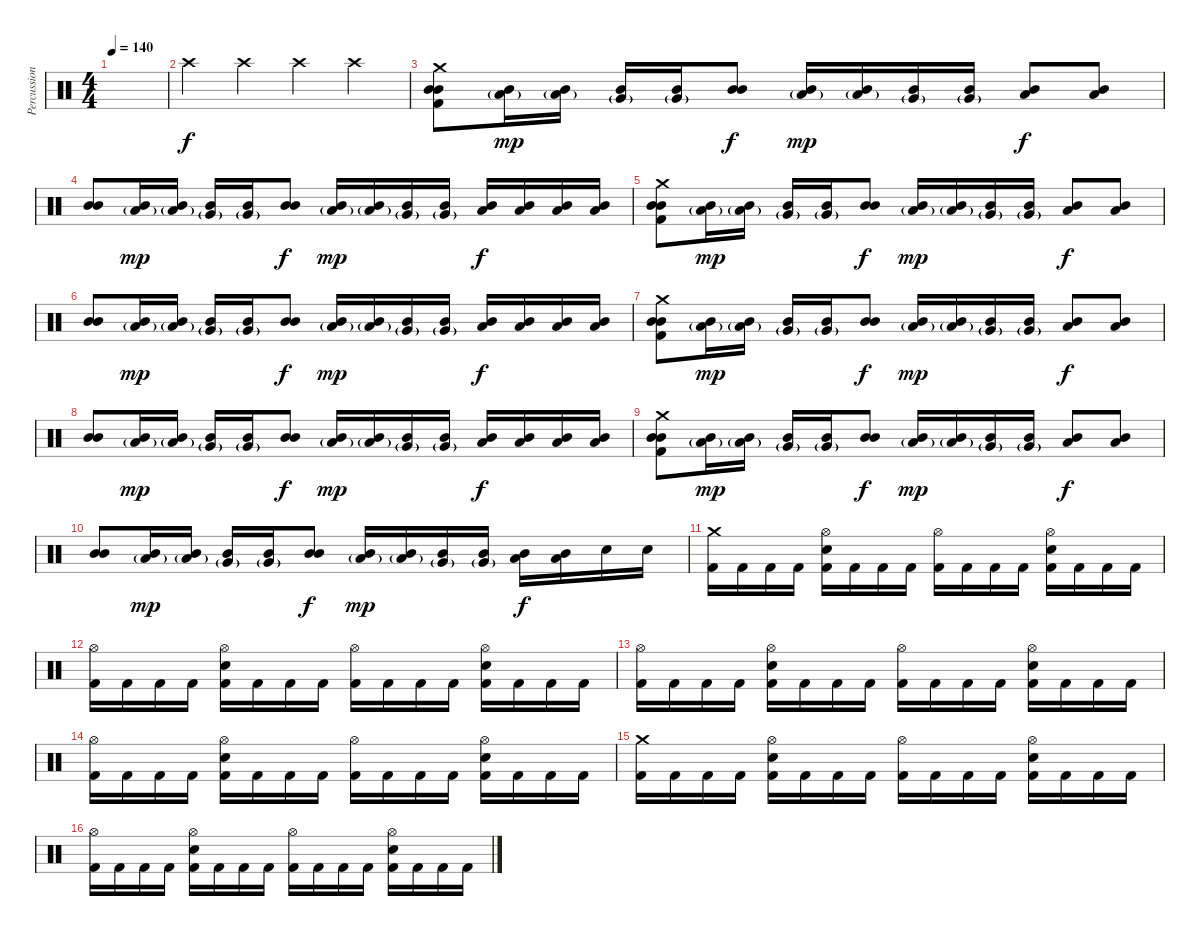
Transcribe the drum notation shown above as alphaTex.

\track ("Percussion" "Percussion") {instrument percussion}
\staff {score}
\articulation defaults
\ts (4 4)
\tempo 140
\clef neutral
\ks c
|
"Crash high (hit)".4 "Crash high (hit)".4 "Crash high (hit)".4 "Crash high (hit)".4 |
("Crash medium (hit)" "Mid Tom (hit)" "Mid Tom (hit)" "Kick (hit) 2").8 ("Low Tom (hit)"{g} "Mid Tom (hit)").16{dy mp} ("Low Tom (hit)"{g} "Mid Tom (hit)").16 ("Very Low Tom (hit)"{g} "Mid Tom (hit)").16 ("Very Low Tom (hit)"{g} "Mid Tom (hit)").16 ("Mid Tom (hit)" "Mid Tom (hit)").8{dy f} ("Low Tom (hit)"{g} "Mid Tom (hit)").16{dy mp} ("Low Tom (hit)"{g} "Mid Tom (hit)").16 ("Very Low Tom (hit)"{g} "Mid Tom (hit)").16 ("Very Low Tom (hit)"{g} "Mid Tom (hit)").16 ("Low Tom (hit)" "Mid Tom (hit)").8{dy f} ("Low Tom (hit)" "Mid Tom (hit)").8 |
("Mid Tom (hit)" "Mid Tom (hit)").8 ("Low Tom (hit)"{g} "Mid Tom (hit)").16{dy mp} ("Low Tom (hit)"{g} "Mid Tom (hit)").16 ("Very Low Tom (hit)"{g} "Mid Tom (hit)").16 ("Very Low Tom (hit)"{g} "Mid Tom (hit)").16 ("Mid Tom (hit)" "Mid Tom (hit)").8{dy f} ("Low Tom (hit)"{g} "Mid Tom (hit)").16{dy mp} ("Low Tom (hit)"{g} "Mid Tom (hit)").16 ("Very Low Tom (hit)"{g} "Mid Tom (hit)").16 ("Very Low Tom (hit)"{g} "Mid Tom (hit)").16 ("Low Tom (hit)" "Mid Tom (hit)").16{dy f} ("Low Tom (hit)" "Mid Tom (hit)").16 ("Low Tom (hit)" "Mid Tom (hit)").16 ("Low Tom (hit)" "Mid Tom (hit)").16 |
("Crash medium (hit)" "Mid Tom (hit)" "Mid Tom (hit)" "Kick (hit) 2").8 ("Low Tom (hit)"{g} "Mid Tom (hit)").16{dy mp} ("Low Tom (hit)"{g} "Mid Tom (hit)").16 ("Very Low Tom (hit)"{g} "Mid Tom (hit)").16 ("Very Low Tom (hit)"{g} "Mid Tom (hit)").16 ("Mid Tom (hit)" "Mid Tom (hit)").8{dy f} ("Low Tom (hit)"{g} "Mid Tom (hit)").16{dy mp} ("Low Tom (hit)"{g} "Mid Tom (hit)").16 ("Very Low Tom (hit)"{g} "Mid Tom (hit)").16 ("Very Low Tom (hit)"{g} "Mid Tom (hit)").16 ("Low Tom (hit)" "Mid Tom (hit)").8{dy f} ("Low Tom (hit)" "Mid Tom (hit)").8 |
("Mid Tom (hit)" "Mid Tom (hit)").8 ("Low Tom (hit)"{g} "Mid Tom (hit)").16{dy mp} ("Low Tom (hit)"{g} "Mid Tom (hit)").16 ("Very Low Tom (hit)"{g} "Mid Tom (hit)").16 ("Very Low Tom (hit)"{g} "Mid Tom (hit)").16 ("Mid Tom (hit)" "Mid Tom (hit)").8{dy f} ("Low Tom (hit)"{g} "Mid Tom (hit)").16{dy mp} ("Low Tom (hit)"{g} "Mid Tom (hit)").16 ("Very Low Tom (hit)"{g} "Mid Tom (hit)").16 ("Very Low Tom (hit)"{g} "Mid Tom (hit)").16 ("Low Tom (hit)" "Mid Tom (hit)").16{dy f} ("Low Tom (hit)" "Mid Tom (hit)").16 ("Low Tom (hit)" "Mid Tom (hit)").16 ("Low Tom (hit)" "Mid Tom (hit)").16 |
("Crash medium (hit)" "Mid Tom (hit)" "Mid Tom (hit)" "Kick (hit) 2").8 ("Low Tom (hit)"{g} "Mid Tom (hit)").16{dy mp} ("Low Tom (hit)"{g} "Mid Tom (hit)").16 ("Very Low Tom (hit)"{g} "Mid Tom (hit)").16 ("Very Low Tom (hit)"{g} "Mid Tom (hit)").16 ("Mid Tom (hit)" "Mid Tom (hit)").8{dy f} ("Low Tom (hit)"{g} "Mid Tom (hit)").16{dy mp} ("Low Tom (hit)"{g} "Mid Tom (hit)").16 ("Very Low Tom (hit)"{g} "Mid Tom (hit)").16 ("Very Low Tom (hit)"{g} "Mid Tom (hit)").16 ("Low Tom (hit)" "Mid Tom (hit)").8{dy f} ("Low Tom (hit)" "Mid Tom (hit)").8 |
("Mid Tom (hit)" "Mid Tom (hit)").8 ("Low Tom (hit)"{g} "Mid Tom (hit)").16{dy mp} ("Low Tom (hit)"{g} "Mid Tom (hit)").16 ("Very Low Tom (hit)"{g} "Mid Tom (hit)").16 ("Very Low Tom (hit)"{g} "Mid Tom (hit)").16 ("Mid Tom (hit)" "Mid Tom (hit)").8{dy f} ("Low Tom (hit)"{g} "Mid Tom (hit)").16{dy mp} ("Low Tom (hit)"{g} "Mid Tom (hit)").16 ("Very Low Tom (hit)"{g} "Mid Tom (hit)").16 ("Very Low Tom (hit)"{g} "Mid Tom (hit)").16 ("Low Tom (hit)" "Mid Tom (hit)").16{dy f} ("Low Tom (hit)" "Mid Tom (hit)").16 ("Low Tom (hit)" "Mid Tom (hit)").16 ("Low Tom (hit)" "Mid Tom (hit)").16 |
("Crash medium (hit)" "Mid Tom (hit)" "Mid Tom (hit)" "Kick (hit) 2").8 ("Low Tom (hit)"{g} "Mid Tom (hit)").16{dy mp} ("Low Tom (hit)"{g} "Mid Tom (hit)").16 ("Very Low Tom (hit)"{g} "Mid Tom (hit)").16 ("Very Low Tom (hit)"{g} "Mid Tom (hit)").16 ("Mid Tom (hit)" "Mid Tom (hit)").8{dy f} ("Low Tom (hit)"{g} "Mid Tom (hit)").16{dy mp} ("Low Tom (hit)"{g} "Mid Tom (hit)").16 ("Very Low Tom (hit)"{g} "Mid Tom (hit)").16 ("Very Low Tom (hit)"{g} "Mid Tom (hit)").16 ("Low Tom (hit)" "Mid Tom (hit)").8{dy f} ("Low Tom (hit)" "Mid Tom (hit)").8 |
("Mid Tom (hit)" "Mid Tom (hit)").8 ("Low Tom (hit)"{g} "Mid Tom (hit)").16{dy mp} ("Low Tom (hit)"{g} "Mid Tom (hit)").16 ("Very Low Tom (hit)"{g} "Mid Tom (hit)").16 ("Very Low Tom (hit)"{g} "Mid Tom (hit)").16 ("Mid Tom (hit)" "Mid Tom (hit)").8{dy f} ("Low Tom (hit)"{g} "Mid Tom (hit)").16{dy mp} ("Low Tom (hit)"{g} "Mid Tom (hit)").16 ("Very Low Tom (hit)"{g} "Mid Tom (hit)").16 ("Very Low Tom (hit)"{g} "Mid Tom (hit)").16 ("Low Tom (hit)" "Mid Tom (hit)").16{dy f} ("Low Tom (hit)" "Mid Tom (hit)").16 "Electric Snare (hit)".16 "Electric Snare (hit)".16 |
("Crash medium (hit)" "Kick (hit) 2").16 "Kick (hit) 2".16 "Kick (hit) 2".16 "Kick (hit) 2".16 ("Hi-Hat (open)" "Electric Snare (hit)" "Kick (hit) 2").16 "Kick (hit) 2".16 "Kick (hit) 2".16 "Kick (hit) 2".16 ("Hi-Hat (open)" "Kick (hit) 2").16 "Kick (hit) 2".16 "Kick (hit) 2".16 "Kick (hit) 2".16 ("Hi-Hat (open)" "Electric Snare (hit)" "Kick (hit) 2").16 "Kick (hit) 2".16 "Kick (hit) 2".16 "Kick (hit) 2".16 |
("Hi-Hat (open)" "Kick (hit) 2").16 "Kick (hit) 2".16 "Kick (hit) 2".16 "Kick (hit) 2".16 ("Hi-Hat (open)" "Electric Snare (hit)" "Kick (hit) 2").16 "Kick (hit) 2".16 "Kick (hit) 2".16 "Kick (hit) 2".16 ("Hi-Hat (open)" "Kick (hit) 2").16 "Kick (hit) 2".16 "Kick (hit) 2".16 "Kick (hit) 2".16 ("Hi-Hat (open)" "Electric Snare (hit)" "Kick (hit) 2").16 "Kick (hit) 2".16 "Kick (hit) 2".16 "Kick (hit) 2".16 |
("Hi-Hat (open)" "Kick (hit) 2").16 "Kick (hit) 2".16 "Kick (hit) 2".16 "Kick (hit) 2".16 ("Hi-Hat (open)" "Electric Snare (hit)" "Kick (hit) 2").16 "Kick (hit) 2".16 "Kick (hit) 2".16 "Kick (hit) 2".16 ("Hi-Hat (open)" "Kick (hit) 2").16 "Kick (hit) 2".16 "Kick (hit) 2".16 "Kick (hit) 2".16 ("Hi-Hat (open)" "Electric Snare (hit)" "Kick (hit) 2").16 "Kick (hit) 2".16 "Kick (hit) 2".16 "Kick (hit) 2".16 |
("Hi-Hat (open)" "Kick (hit) 2").16 "Kick (hit) 2".16 "Kick (hit) 2".16 "Kick (hit) 2".16 ("Hi-Hat (open)" "Electric Snare (hit)" "Kick (hit) 2").16 "Kick (hit) 2".16 "Kick (hit) 2".16 "Kick (hit) 2".16 ("Hi-Hat (open)" "Kick (hit) 2").16 "Kick (hit) 2".16 "Kick (hit) 2".16 "Kick (hit) 2".16 ("Hi-Hat (open)" "Electric Snare (hit)" "Kick (hit) 2").16 "Kick (hit) 2".16 "Kick (hit) 2".16 "Kick (hit) 2".16 |
("Crash medium (hit)" "Kick (hit) 2").16 "Kick (hit) 2".16 "Kick (hit) 2".16 "Kick (hit) 2".16 ("Hi-Hat (open)" "Electric Snare (hit)" "Kick (hit) 2").16 "Kick (hit) 2".16 "Kick (hit) 2".16 "Kick (hit) 2".16 ("Hi-Hat (open)" "Kick (hit) 2").16 "Kick (hit) 2".16 "Kick (hit) 2".16 "Kick (hit) 2".16 ("Hi-Hat (open)" "Electric Snare (hit)" "Kick (hit) 2").16 "Kick (hit) 2".16 "Kick (hit) 2".16 "Kick (hit) 2".16 |
("Hi-Hat (open)" "Kick (hit) 2").16 "Kick (hit) 2".16 "Kick (hit) 2".16 "Kick (hit) 2".16 ("Hi-Hat (open)" "Electric Snare (hit)" "Kick (hit) 2").16 "Kick (hit) 2".16 "Kick (hit) 2".16 "Kick (hit) 2".16 ("Hi-Hat (open)" "Kick (hit) 2").16 "Kick (hit) 2".16 "Kick (hit) 2".16 "Kick (hit) 2".16 ("Hi-Hat (open)" "Electric Snare (hit)" "Kick (hit) 2").16 "Kick (hit) 2".16 "Kick (hit) 2".16 "Kick (hit) 2".16
